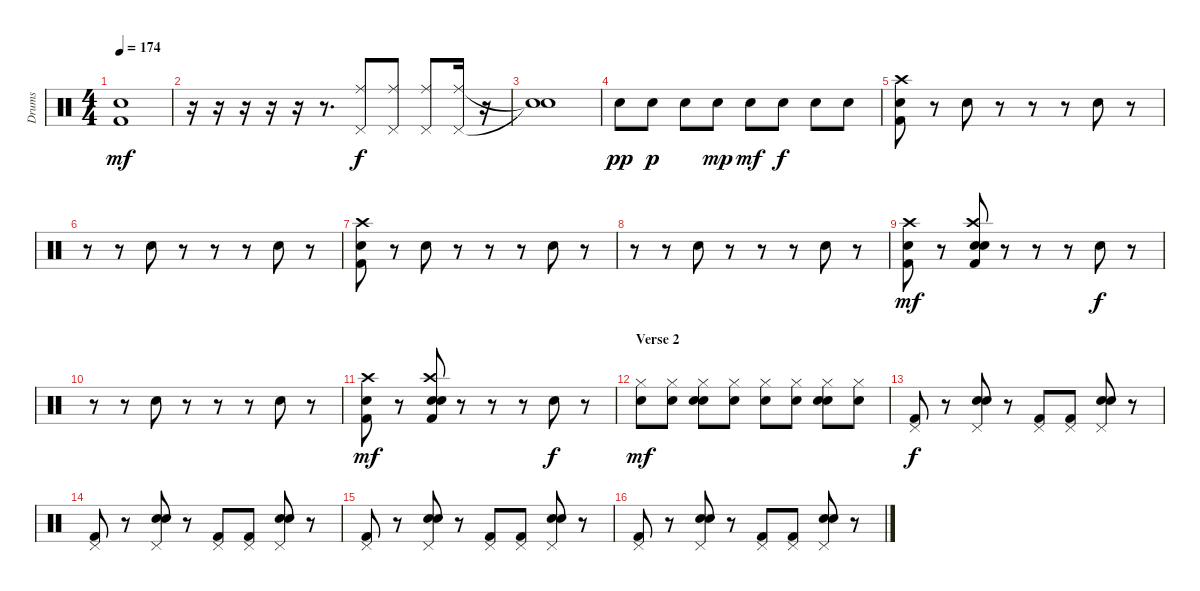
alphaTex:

\track ("Drums" "Drums") {instrument percussion}
\staff {score}
\articulation defaults
\ts (4 4)
\tempo 174
\clef neutral
\ks c
("Electric Snare (hit)" "Kick (hit) 2").1{dy mf} |
r.16 r.16 r.16 r.16 r.16 r.8{d} ("Pedal Hi-Hat (hit)" "Ride (middle)").8{dy f} ("Pedal Hi-Hat (hit)" "Ride (middle)").8 ("Pedal Hi-Hat (hit)" "Ride (middle)").8 ("Pedal Hi-Hat (hit)" "Ride (middle)").16 r.16 |
("Snare (hit)"{t} "Snare (hit)"{t}).1 |
"Electric Snare (hit)".8{dy pp} "Electric Snare (hit)".8{dy p} "Electric Snare (hit)".8 "Electric Snare (hit)".8{dy mp} "Electric Snare (hit)".8{dy mf} "Electric Snare (hit)".8{dy f} "Electric Snare (hit)".8 "Electric Snare (hit)".8 |
("Crash high (hit)" "Snare (hit) 2" "Kick (hit) 2").8 r.8 "Hand Clap (hit)".8 r.8 r.8 r.8 "Hand Clap (hit)".8 r.8 |
r.8 r.8 "Hand Clap (hit)".8 r.8 r.8 r.8 "Hand Clap (hit)".8 r.8 |
("Crash high (hit)" "Snare (hit) 2" "Kick (hit) 2").8 r.8 "Hand Clap (hit)".8 r.8 r.8 r.8 "Hand Clap (hit)".8 r.8 |
r.8 r.8 "Hand Clap (hit)".8 r.8 r.8 r.8 "Hand Clap (hit)".8 r.8 |
("Crash high (hit)" "Snare (hit) 2" "Kick (hit) 2").8{dy mf} r.8 ("Crash high (hit)" "Hand Clap (hit)" "Snare (hit) 2" "Kick (hit) 2").8 r.8 r.8 r.8 "Hand Clap (hit)".8{dy f} r.8 |
r.8 r.8 "Hand Clap (hit)".8 r.8 r.8 r.8 "Hand Clap (hit)".8 r.8 |
("Crash high (hit)" "Snare (hit) 2" "Kick (hit) 2").8{dy mf} r.8 ("Crash high (hit)" "Hand Clap (hit)" "Snare (hit) 2" "Kick (hit) 2").8 r.8 r.8 r.8 "Hand Clap (hit)".8{dy f} r.8 |
\section ("" "Verse 2")
("Hi-Hat (closed)" "Snare (hit) 2").8{dy mf} ("Hi-Hat (closed)" "Snare (hit) 2").8 ("Hi-Hat (closed)" "Hand Clap (hit)" "Snare (hit) 2").8 ("Hi-Hat (closed)" "Snare (hit) 2").8 ("Hi-Hat (closed)" "Snare (hit) 2").8 ("Hi-Hat (closed)" "Snare (hit) 2").8 ("Hi-Hat (closed)" "Hand Clap (hit)" "Snare (hit) 2").8 ("Hi-Hat (closed)" "Snare (hit) 2").8 |
("Pedal Hi-Hat (hit)" "Kick (hit) 2").8{dy f} r.8 ("Pedal Hi-Hat (hit)" "Hand Clap (hit)" "Snare (hit) 2").8 r.8 ("Pedal Hi-Hat (hit)" "Kick (hit) 2").8 ("Pedal Hi-Hat (hit)" "Kick (hit) 2").8 ("Pedal Hi-Hat (hit)" "Hand Clap (hit)" "Snare (hit) 2").8 r.8 |
("Pedal Hi-Hat (hit)" "Kick (hit) 2").8 r.8 ("Pedal Hi-Hat (hit)" "Hand Clap (hit)" "Snare (hit) 2").8 r.8 ("Pedal Hi-Hat (hit)" "Kick (hit) 2").8 ("Pedal Hi-Hat (hit)" "Kick (hit) 2").8 ("Pedal Hi-Hat (hit)" "Hand Clap (hit)" "Snare (hit) 2").8 r.8 |
("Pedal Hi-Hat (hit)" "Kick (hit) 2").8 r.8 ("Pedal Hi-Hat (hit)" "Hand Clap (hit)" "Snare (hit) 2").8 r.8 ("Pedal Hi-Hat (hit)" "Kick (hit) 2").8 ("Pedal Hi-Hat (hit)" "Kick (hit) 2").8 ("Pedal Hi-Hat (hit)" "Hand Clap (hit)" "Snare (hit) 2").8 r.8 |
("Pedal Hi-Hat (hit)" "Kick (hit) 2").8 r.8 ("Pedal Hi-Hat (hit)" "Hand Clap (hit)" "Snare (hit) 2").8 r.8 ("Pedal Hi-Hat (hit)" "Kick (hit) 2").8 ("Pedal Hi-Hat (hit)" "Kick (hit) 2").8 ("Pedal Hi-Hat (hit)" "Hand Clap (hit)" "Snare (hit) 2").8 r.8
